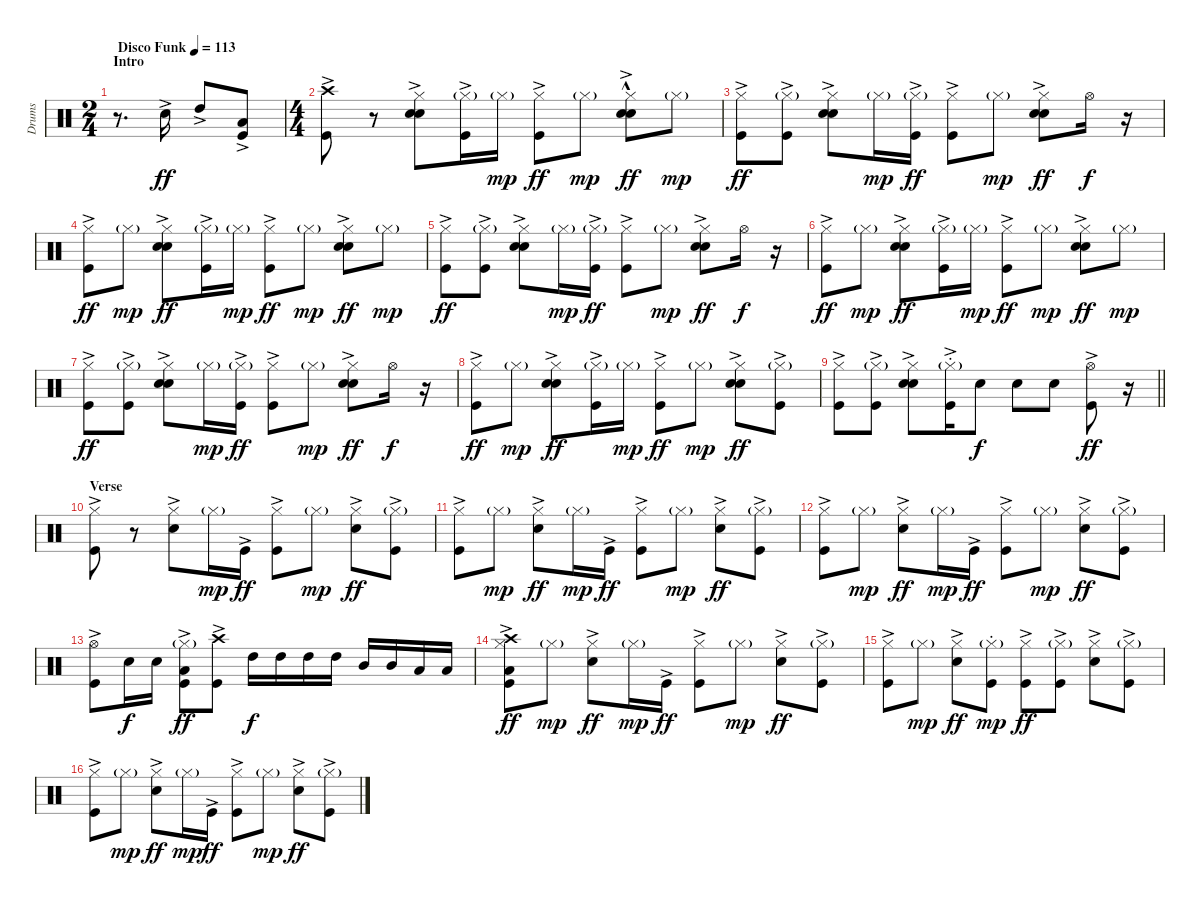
\track ("Drums" "Drums") {instrument percussion}
\staff {score}
\articulation defaults
\ts (2 4)
\section ("" "Intro")
\tempo (113 "Disco Funk")
\clef neutral
\ks c
r.8{d dy ff} "Snare (hit) 2"{ac}.16 "High Tom (hit)"{ac}.8 ("Low Tom (hit)"{ac} "Kick (hit)"{ac}).8 |
\ts (4 4)
("Crash high (hit)" "Kick (hit)"{ac}).8 r.8 ("Hi-Hat (closed)" "Hand Clap (hit)" "Snare (hit) 2"{ac}).8 ("Hi-Hat (closed)"{g} "Kick (hit)"{ac}).16 "Hi-Hat (closed)"{g}.16{dy mp} ("Hi-Hat (closed)" "Kick (hit)"{ac}).8{dy ff} "Hi-Hat (closed)"{g}.8{dy mp} ("Hi-Hat (closed)" "Hand Clap (hit)"{hac} "Snare (hit) 2"{ac}).8{dy ff} "Hi-Hat (closed)"{g}.8{dy mp} |
("Hi-Hat (closed)" "Kick (hit)"{ac}).8{dy ff} ("Hi-Hat (closed)"{g} "Kick (hit)"{ac}).8 ("Hi-Hat (closed)" "Hand Clap (hit)" "Snare (hit) 2"{ac}).8 "Hi-Hat (closed)"{g}.16{dy mp} ("Hi-Hat (closed)"{g} "Kick (hit)"{ac}).16{dy ff} ("Hi-Hat (closed)" "Kick (hit)"{ac}).8 "Hi-Hat (closed)"{g}.8{dy mp} ("Hi-Hat (closed)" "Hand Clap (hit)" "Snare (hit) 2"{ac}).8{dy ff} "Hi-Hat (open)".16{dy f} r.16 |
("Hi-Hat (closed)" "Kick (hit)"{ac}).8{dy ff} "Hi-Hat (closed)"{g}.8{dy mp} ("Hi-Hat (closed)" "Hand Clap (hit)" "Snare (hit) 2"{ac}).8{dy ff} ("Hi-Hat (closed)"{g} "Kick (hit)"{ac}).16 "Hi-Hat (closed)"{g}.16{dy mp} ("Hi-Hat (closed)" "Kick (hit)"{ac}).8{dy ff} "Hi-Hat (closed)"{g}.8{dy mp} ("Hi-Hat (closed)" "Hand Clap (hit)" "Snare (hit) 2"{ac}).8{dy ff} "Hi-Hat (closed)"{g}.8{dy mp} |
("Hi-Hat (closed)" "Kick (hit)"{ac}).8{dy ff} ("Hi-Hat (closed)"{g} "Kick (hit)"{ac}).8 ("Hi-Hat (closed)" "Hand Clap (hit)" "Snare (hit) 2"{ac}).8 "Hi-Hat (closed)"{g}.16{dy mp} ("Hi-Hat (closed)"{g} "Kick (hit)"{ac}).16{dy ff} ("Hi-Hat (closed)" "Kick (hit)"{ac}).8 "Hi-Hat (closed)"{g}.8{dy mp} ("Hi-Hat (closed)" "Hand Clap (hit)" "Snare (hit) 2"{ac}).8{dy ff} "Hi-Hat (open)".16{dy f} r.16 |
("Hi-Hat (closed)" "Kick (hit)"{ac}).8{dy ff} "Hi-Hat (closed)"{g}.8{dy mp} ("Hi-Hat (closed)" "Hand Clap (hit)" "Snare (hit) 2"{ac}).8{dy ff} ("Hi-Hat (closed)"{g} "Kick (hit)"{ac}).16 "Hi-Hat (closed)"{g}.16{dy mp} ("Hi-Hat (closed)" "Kick (hit)"{ac}).8{dy ff} "Hi-Hat (closed)"{g}.8{dy mp} ("Hi-Hat (closed)" "Hand Clap (hit)" "Snare (hit) 2"{ac}).8{dy ff} "Hi-Hat (closed)"{g}.8{dy mp} |
("Hi-Hat (closed)" "Kick (hit)"{ac}).8{dy ff} ("Hi-Hat (closed)"{g} "Kick (hit)"{ac}).8 ("Hi-Hat (closed)" "Hand Clap (hit)" "Snare (hit) 2"{ac}).8 "Hi-Hat (closed)"{g}.16{dy mp} ("Hi-Hat (closed)"{g} "Kick (hit)"{ac}).16{dy ff} ("Hi-Hat (closed)" "Kick (hit)"{ac}).8 "Hi-Hat (closed)"{g}.8{dy mp} ("Hi-Hat (closed)" "Hand Clap (hit)" "Snare (hit) 2"{ac}).8{dy ff} "Hi-Hat (open)".16{dy f} r.16 |
("Hi-Hat (closed)" "Kick (hit)"{ac}).8{dy ff} "Hi-Hat (closed)"{g}.8{dy mp} ("Hi-Hat (closed)" "Hand Clap (hit)" "Snare (hit) 2"{ac}).8{dy ff} ("Hi-Hat (closed)"{g} "Kick (hit)"{ac}).16 "Hi-Hat (closed)"{g}.16{dy mp} ("Hi-Hat (closed)" "Kick (hit)"{ac}).8{dy ff} "Hi-Hat (closed)"{g}.8{dy mp} ("Hi-Hat (closed)" "Hand Clap (hit)" "Snare (hit) 2"{ac}).8{dy ff} ("Hi-Hat (closed)"{g} "Kick (hit)"{ac}).8 |
\barLineRight lightlight
("Hi-Hat (closed)" "Kick (hit)"{ac}).8 ("Hi-Hat (closed)"{g} "Kick (hit)"{ac}).8 ("Hi-Hat (closed)" "Hand Clap (hit)" "Snare (hit) 2"{ac}).8 ("Hi-Hat (closed)"{g} "Kick (hit)"{ac st}).16 "Snare (hit) 2".8{dy f} "Snare (hit) 2".8 "Snare (hit) 2".8 ("Hi-Hat (open)" "Kick (hit)"{ac}).8{dy ff} r.16 |
\section ("" "Verse")
("Hi-Hat (closed)" "Kick (hit)"{ac}).8 r.8 ("Hi-Hat (closed)" "Snare (hit) 2"{ac}).8 "Hi-Hat (closed)"{g}.16{dy mp} "Kick (hit)"{ac}.16{dy ff} ("Hi-Hat (closed)" "Kick (hit)"{ac}).8 "Hi-Hat (closed)"{g}.8{dy mp} ("Hi-Hat (closed)" "Snare (hit) 2"{ac}).8{dy ff} ("Hi-Hat (closed)"{g} "Kick (hit)"{ac}).8 |
("Hi-Hat (closed)" "Kick (hit)"{ac}).8 "Hi-Hat (closed)"{g}.8{dy mp} ("Hi-Hat (closed)" "Snare (hit) 2"{ac}).8{dy ff} "Hi-Hat (closed)"{g}.16{dy mp} "Kick (hit)"{ac}.16{dy ff} ("Hi-Hat (closed)" "Kick (hit)"{ac}).8 "Hi-Hat (closed)"{g}.8{dy mp} ("Hi-Hat (closed)" "Snare (hit) 2"{ac}).8{dy ff} ("Hi-Hat (closed)"{g} "Kick (hit)"{ac}).8 |
("Hi-Hat (closed)" "Kick (hit)"{ac}).8 "Hi-Hat (closed)"{g}.8{dy mp} ("Hi-Hat (closed)" "Snare (hit) 2"{ac}).8{dy ff} "Hi-Hat (closed)"{g}.16{dy mp} "Kick (hit)"{ac}.16{dy ff} ("Hi-Hat (closed)" "Kick (hit)"{ac}).8 "Hi-Hat (closed)"{g}.8{dy mp} ("Hi-Hat (closed)" "Snare (hit) 2"{ac}).8{dy ff} ("Hi-Hat (closed)"{g} "Kick (hit)"{ac}).8 |
("Hi-Hat (open)" "Kick (hit)"{ac}).8 "Snare (hit) 2".16{dy f} "Snare (hit) 2".16 ("Hi-Hat (closed)"{g} "Low Tom (hit)" "Kick (hit)"{ac}).8{dy ff} ("Crash high (hit)" "Kick (hit)"{ac}).8 "High Tom (hit)".16{dy f} "High Tom (hit)".16 "High Tom (hit)".16 "High Tom (hit)".16 "Mid Tom (hit)".16 "Mid Tom (hit)".16 "Low Tom (hit)".16 "Low Tom (hit)".16 |
("Crash high (hit)" "Hi-Hat (closed)" "Low Tom (hit)" "Kick (hit)"{ac}).8{dy ff} "Hi-Hat (closed)"{g}.8{dy mp} ("Hi-Hat (closed)" "Snare (hit) 2"{ac}).8{dy ff} "Hi-Hat (closed)"{g}.16{dy mp} "Kick (hit)"{ac}.16{dy ff} ("Hi-Hat (closed)" "Kick (hit)"{ac}).8 "Hi-Hat (closed)"{g}.8{dy mp} ("Hi-Hat (closed)" "Snare (hit) 2"{ac}).8{dy ff} ("Hi-Hat (closed)"{g} "Kick (hit)"{ac}).8 |
("Hi-Hat (closed)" "Kick (hit)"{ac}).8 "Hi-Hat (closed)"{g}.8{dy mp} ("Hi-Hat (closed)" "Snare (hit) 2"{ac}).8{dy ff} ("Hi-Hat (closed)"{g} "Kick (hit)"{st}).8{dy mp} ("Hi-Hat (closed)" "Kick (hit)"{ac}).8{dy ff} ("Hi-Hat (closed)"{g} "Kick (hit)"{ac}).8 ("Hi-Hat (closed)" "Snare (hit) 2"{ac}).8 ("Hi-Hat (closed)"{g} "Kick (hit)"{ac}).8 |
("Hi-Hat (closed)" "Kick (hit)"{ac}).8 "Hi-Hat (closed)"{g}.8{dy mp} ("Hi-Hat (closed)" "Snare (hit) 2"{ac}).8{dy ff} "Hi-Hat (closed)"{g}.16{dy mp} "Kick (hit)"{ac}.16{dy ff} ("Hi-Hat (closed)" "Kick (hit)"{ac}).8 "Hi-Hat (closed)"{g}.8{dy mp} ("Hi-Hat (closed)" "Snare (hit) 2"{ac}).8{dy ff} ("Hi-Hat (closed)"{g} "Kick (hit)"{ac}).8
